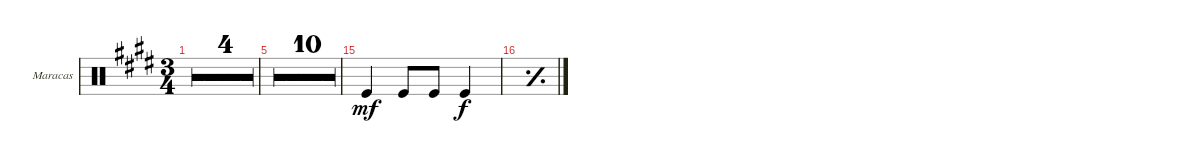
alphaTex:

\defaultSystemsLayout 4
\bracketExtendMode groupsimilarinstruments
\firstSystemTrackNameOrientation horizontal
\otherSystemsTrackNameOrientation horizontal
\track ("Maracas" "Maracas") {multiBarRest instrument percussion}
\staff {score}
\articulation defaults
\ts (3 4)
\tempo
150.035
\accidentals auto
\clef neutral
\ottava regular
\simile firstofdouble
\ks e
|
\simile secondofdouble
|
\simile simple
|
\simile none
r.2{d} |
\tempo
165.176 r.2{d} |
r.2{d} |
r.2{d} |
r.2{d} |
r.2{d} |
r.2{d} |
r.2{d} |
r.2{d} |
r.2{d} |
r.2{d} |
"Kick (hit)".4{dy mf} "Kick (hit)".8 "Kick (hit)".8 "Kick (hit)".4{dy f} |
\simile simple
